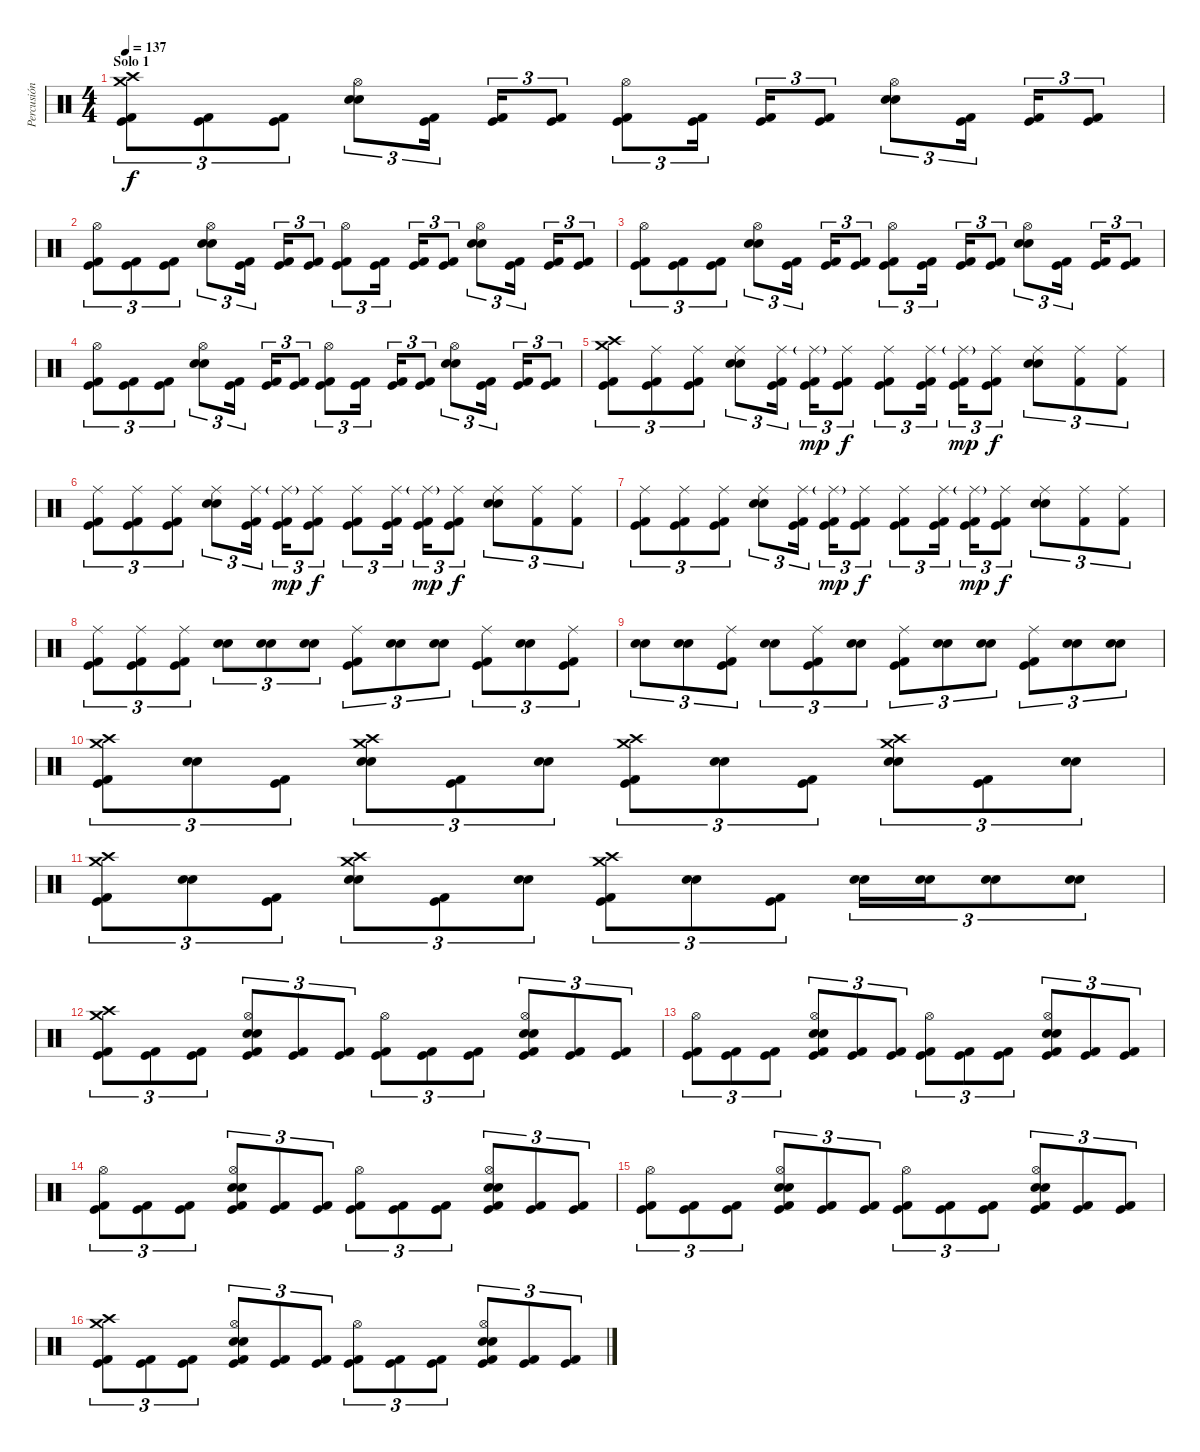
\track ("Percusión" "Percusión") {instrument percussion}
\staff {score}
\articulation defaults
\ts (4 4)
\section ("" "Solo 1")
\tempo 137
\clef neutral
\ks c
("Crash medium (hit)" "Crash high (hit)" "Kick (hit)" "Kick (hit) 2").8{tu (3 2) dy f} ("Kick (hit)" "Kick (hit) 2").8{tu (3 2)} ("Kick (hit)" "Kick (hit) 2").8{tu (3 2)} ("Hi-Hat (open)" "Electric Snare (hit)" "Electric Snare (hit)").8{tu (3 2)} ("Kick (hit)" "Kick (hit) 2").16{tu (3 2)} ("Kick (hit)" "Kick (hit) 2").16{tu (3 2)} ("Kick (hit)" "Kick (hit) 2").8{tu (3 2)} ("Hi-Hat (open)" "Kick (hit)" "Kick (hit) 2").8{tu (3 2)} ("Kick (hit)" "Kick (hit) 2").16{tu (3 2)} ("Kick (hit)" "Kick (hit) 2").16{tu (3 2)} ("Kick (hit)" "Kick (hit) 2").8{tu (3 2)} ("Hi-Hat (open)" "Electric Snare (hit)" "Electric Snare (hit)").8{tu (3 2)} ("Kick (hit)" "Kick (hit) 2").16{tu (3 2)} ("Kick (hit)" "Kick (hit) 2").16{tu (3 2)} ("Kick (hit)" "Kick (hit) 2").8{tu (3 2)} |
("Hi-Hat (open)" "Kick (hit)" "Kick (hit) 2").8{tu (3 2)} ("Kick (hit)" "Kick (hit) 2").8{tu (3 2)} ("Kick (hit)" "Kick (hit) 2").8{tu (3 2)} ("Hi-Hat (open)" "Electric Snare (hit)" "Electric Snare (hit)").8{tu (3 2)} ("Kick (hit)" "Kick (hit) 2").16{tu (3 2)} ("Kick (hit)" "Kick (hit) 2").16{tu (3 2)} ("Kick (hit)" "Kick (hit) 2").8{tu (3 2)} ("Hi-Hat (open)" "Kick (hit)" "Kick (hit) 2").8{tu (3 2)} ("Kick (hit)" "Kick (hit) 2").16{tu (3 2)} ("Kick (hit)" "Kick (hit) 2").16{tu (3 2)} ("Kick (hit)" "Kick (hit) 2").8{tu (3 2)} ("Hi-Hat (open)" "Electric Snare (hit)" "Electric Snare (hit)").8{tu (3 2)} ("Kick (hit)" "Kick (hit) 2").16{tu (3 2)} ("Kick (hit)" "Kick (hit) 2").16{tu (3 2)} ("Kick (hit)" "Kick (hit) 2").8{tu (3 2)} |
("Hi-Hat (open)" "Kick (hit)" "Kick (hit) 2").8{tu (3 2)} ("Kick (hit)" "Kick (hit) 2").8{tu (3 2)} ("Kick (hit)" "Kick (hit) 2").8{tu (3 2)} ("Hi-Hat (open)" "Electric Snare (hit)" "Electric Snare (hit)").8{tu (3 2)} ("Kick (hit)" "Kick (hit) 2").16{tu (3 2)} ("Kick (hit)" "Kick (hit) 2").16{tu (3 2)} ("Kick (hit)" "Kick (hit) 2").8{tu (3 2)} ("Hi-Hat (open)" "Kick (hit)" "Kick (hit) 2").8{tu (3 2)} ("Kick (hit)" "Kick (hit) 2").16{tu (3 2)} ("Kick (hit)" "Kick (hit) 2").16{tu (3 2)} ("Kick (hit)" "Kick (hit) 2").8{tu (3 2)} ("Hi-Hat (open)" "Electric Snare (hit)" "Electric Snare (hit)").8{tu (3 2)} ("Kick (hit)" "Kick (hit) 2").16{tu (3 2)} ("Kick (hit)" "Kick (hit) 2").16{tu (3 2)} ("Kick (hit)" "Kick (hit) 2").8{tu (3 2)} |
("Hi-Hat (open)" "Kick (hit)" "Kick (hit) 2").8{tu (3 2)} ("Kick (hit)" "Kick (hit) 2").8{tu (3 2)} ("Kick (hit)" "Kick (hit) 2").8{tu (3 2)} ("Hi-Hat (open)" "Electric Snare (hit)" "Electric Snare (hit)").8{tu (3 2)} ("Kick (hit)" "Kick (hit) 2").16{tu (3 2)} ("Kick (hit)" "Kick (hit) 2").16{tu (3 2)} ("Kick (hit)" "Kick (hit) 2").8{tu (3 2)} ("Hi-Hat (open)" "Kick (hit)" "Kick (hit) 2").8{tu (3 2)} ("Kick (hit)" "Kick (hit) 2").16{tu (3 2)} ("Kick (hit)" "Kick (hit) 2").16{tu (3 2)} ("Kick (hit)" "Kick (hit) 2").8{tu (3 2)} ("Hi-Hat (open)" "Electric Snare (hit)" "Electric Snare (hit)").8{tu (3 2)} ("Kick (hit)" "Kick (hit) 2").16{tu (3 2)} ("Kick (hit)" "Kick (hit) 2").16{tu (3 2)} ("Kick (hit)" "Kick (hit) 2").8{tu (3 2)} |
("Crash medium (hit)" "Crash high (hit)" "Kick (hit)" "Kick (hit) 2").8{tu (3 2)} ("Ride (middle)" "Kick (hit)" "Kick (hit) 2").8{tu (3 2)} ("Ride (middle)" "Kick (hit)" "Kick (hit) 2").8{tu (3 2)} ("Ride (middle)" "Electric Snare (hit)" "Electric Snare (hit)").8{tu (3 2)} ("Ride (middle)" "Kick (hit)" "Kick (hit) 2").16{tu (3 2)} ("Ride (middle)"{g} "Kick (hit)" "Kick (hit) 2").16{tu (3 2) dy mp} ("Ride (middle)" "Kick (hit)" "Kick (hit) 2").8{tu (3 2) dy f} ("Ride (middle)" "Kick (hit)" "Kick (hit) 2").8{tu (3 2)} ("Ride (middle)" "Kick (hit)" "Kick (hit) 2").16{tu (3 2)} ("Ride (middle)"{g} "Kick (hit)" "Kick (hit) 2").16{tu (3 2) dy mp} ("Ride (middle)" "Kick (hit)" "Kick (hit) 2").8{tu (3 2) dy f} ("Ride (middle)" "Electric Snare (hit)" "Electric Snare (hit)").8{tu (3 2)} ("Ride (middle)" "Kick (hit) 2").8{tu (3 2)} ("Ride (middle)" "Kick (hit) 2").8{tu (3 2)} |
("Ride (middle)" "Kick (hit)" "Kick (hit) 2").8{tu (3 2)} ("Ride (middle)" "Kick (hit)" "Kick (hit) 2").8{tu (3 2)} ("Ride (middle)" "Kick (hit)" "Kick (hit) 2").8{tu (3 2)} ("Ride (middle)" "Electric Snare (hit)" "Electric Snare (hit)").8{tu (3 2)} ("Ride (middle)" "Kick (hit)" "Kick (hit) 2").16{tu (3 2)} ("Ride (middle)"{g} "Kick (hit)" "Kick (hit) 2").16{tu (3 2) dy mp} ("Ride (middle)" "Kick (hit)" "Kick (hit) 2").8{tu (3 2) dy f} ("Ride (middle)" "Kick (hit)" "Kick (hit) 2").8{tu (3 2)} ("Ride (middle)" "Kick (hit)" "Kick (hit) 2").16{tu (3 2)} ("Ride (middle)"{g} "Kick (hit)" "Kick (hit) 2").16{tu (3 2) dy mp} ("Ride (middle)" "Kick (hit)" "Kick (hit) 2").8{tu (3 2) dy f} ("Ride (middle)" "Electric Snare (hit)" "Electric Snare (hit)").8{tu (3 2)} ("Ride (middle)" "Kick (hit) 2").8{tu (3 2)} ("Ride (middle)" "Kick (hit) 2").8{tu (3 2)} |
("Ride (middle)" "Kick (hit)" "Kick (hit) 2").8{tu (3 2)} ("Ride (middle)" "Kick (hit)" "Kick (hit) 2").8{tu (3 2)} ("Ride (middle)" "Kick (hit)" "Kick (hit) 2").8{tu (3 2)} ("Ride (middle)" "Electric Snare (hit)" "Electric Snare (hit)").8{tu (3 2)} ("Ride (middle)" "Kick (hit)" "Kick (hit) 2").16{tu (3 2)} ("Ride (middle)"{g} "Kick (hit)" "Kick (hit) 2").16{tu (3 2) dy mp} ("Ride (middle)" "Kick (hit)" "Kick (hit) 2").8{tu (3 2) dy f} ("Ride (middle)" "Kick (hit)" "Kick (hit) 2").8{tu (3 2)} ("Ride (middle)" "Kick (hit)" "Kick (hit) 2").16{tu (3 2)} ("Ride (middle)"{g} "Kick (hit)" "Kick (hit) 2").16{tu (3 2) dy mp} ("Ride (middle)" "Kick (hit)" "Kick (hit) 2").8{tu (3 2) dy f} ("Ride (middle)" "Electric Snare (hit)" "Electric Snare (hit)").8{tu (3 2)} ("Ride (middle)" "Kick (hit) 2").8{tu (3 2)} ("Ride (middle)" "Kick (hit) 2").8{tu (3 2)} |
("Ride (middle)" "Kick (hit)" "Kick (hit) 2").8{tu (3 2)} ("Ride (middle)" "Kick (hit)" "Kick (hit) 2").8{tu (3 2)} ("Ride (middle)" "Kick (hit)" "Kick (hit) 2").8{tu (3 2)} ("Electric Snare (hit)" "Electric Snare (hit)").8{tu (3 2)} ("Electric Snare (hit)" "Electric Snare (hit)").8{tu (3 2)} ("Electric Snare (hit)" "Electric Snare (hit)").8{tu (3 2)} ("Ride (middle)" "Kick (hit)" "Kick (hit) 2").8{tu (3 2)} ("Electric Snare (hit)" "Electric Snare (hit)").8{tu (3 2)} ("Electric Snare (hit)" "Electric Snare (hit)").8{tu (3 2)} ("Ride (middle)" "Kick (hit)" "Kick (hit) 2").8{tu (3 2)} ("Electric Snare (hit)" "Electric Snare (hit)").8{tu (3 2)} ("Ride (middle)" "Kick (hit)" "Kick (hit) 2").8{tu (3 2)} |
("Electric Snare (hit)" "Electric Snare (hit)").8{tu (3 2)} ("Electric Snare (hit)" "Electric Snare (hit)").8{tu (3 2)} ("Ride (middle)" "Kick (hit)" "Kick (hit) 2").8{tu (3 2)} ("Electric Snare (hit)" "Electric Snare (hit)").8{tu (3 2)} ("Ride (middle)" "Kick (hit)" "Kick (hit) 2").8{tu (3 2)} ("Electric Snare (hit)" "Electric Snare (hit)").8{tu (3 2)} ("Ride (middle)" "Kick (hit)" "Kick (hit) 2").8{tu (3 2)} ("Electric Snare (hit)" "Electric Snare (hit)").8{tu (3 2)} ("Electric Snare (hit)" "Electric Snare (hit)").8{tu (3 2)} ("Ride (middle)" "Kick (hit)" "Kick (hit) 2").8{tu (3 2)} ("Electric Snare (hit)" "Electric Snare (hit)").8{tu (3 2)} ("Electric Snare (hit)" "Electric Snare (hit)").8{tu (3 2)} |
("Crash medium (hit)" "Crash high (hit)" "Kick (hit)" "Kick (hit) 2").8{tu (3 2)} ("Electric Snare (hit)" "Electric Snare (hit)").8{tu (3 2)} ("Kick (hit)" "Kick (hit) 2").8{tu (3 2)} ("Crash medium (hit)" "Crash high (hit)" "Electric Snare (hit)" "Electric Snare (hit)").8{tu (3 2)} ("Kick (hit)" "Kick (hit) 2").8{tu (3 2)} ("Electric Snare (hit)" "Electric Snare (hit)").8{tu (3 2)} ("Crash medium (hit)" "Crash high (hit)" "Kick (hit)" "Kick (hit) 2").8{tu (3 2)} ("Electric Snare (hit)" "Electric Snare (hit)").8{tu (3 2)} ("Kick (hit)" "Kick (hit) 2").8{tu (3 2)} ("Crash medium (hit)" "Crash high (hit)" "Electric Snare (hit)" "Electric Snare (hit)").8{tu (3 2)} ("Kick (hit)" "Kick (hit) 2").8{tu (3 2)} ("Electric Snare (hit)" "Electric Snare (hit)").8{tu (3 2)} |
("Crash medium (hit)" "Crash high (hit)" "Kick (hit)" "Kick (hit) 2").8{tu (3 2)} ("Electric Snare (hit)" "Electric Snare (hit)").8{tu (3 2)} ("Kick (hit)" "Kick (hit) 2").8{tu (3 2)} ("Crash medium (hit)" "Crash high (hit)" "Electric Snare (hit)" "Electric Snare (hit)").8{tu (3 2)} ("Kick (hit)" "Kick (hit) 2").8{tu (3 2)} ("Electric Snare (hit)" "Electric Snare (hit)").8{tu (3 2)} ("Crash medium (hit)" "Crash high (hit)" "Kick (hit)" "Kick (hit) 2").8{tu (3 2)} ("Electric Snare (hit)" "Electric Snare (hit)").8{tu (3 2)} ("Kick (hit)" "Kick (hit) 2").8{tu (3 2)} ("Electric Snare (hit)" "Electric Snare (hit)").16{tu (3 2)} ("Electric Snare (hit)" "Electric Snare (hit)").16{tu (3 2)} ("Electric Snare (hit)" "Electric Snare (hit)").8{tu (3 2)} ("Electric Snare (hit)" "Electric Snare (hit)").8{tu (3 2)} |
("Crash medium (hit)" "Crash high (hit)" "Kick (hit)" "Kick (hit) 2").8{tu (3 2)} ("Kick (hit)" "Kick (hit) 2").8{tu (3 2)} ("Kick (hit)" "Kick (hit) 2").8{tu (3 2)} ("Hi-Hat (open)" "Electric Snare (hit)" "Electric Snare (hit)" "Kick (hit)" "Kick (hit) 2").8{tu (3 2)} ("Kick (hit)" "Kick (hit) 2").8{tu (3 2)} ("Kick (hit)" "Kick (hit) 2").8{tu (3 2)} ("Hi-Hat (open)" "Kick (hit)" "Kick (hit) 2").8{tu (3 2)} ("Kick (hit)" "Kick (hit) 2").8{tu (3 2)} ("Kick (hit)" "Kick (hit) 2").8{tu (3 2)} ("Hi-Hat (open)" "Electric Snare (hit)" "Electric Snare (hit)" "Kick (hit)" "Kick (hit) 2").8{tu (3 2)} ("Kick (hit)" "Kick (hit) 2").8{tu (3 2)} ("Kick (hit)" "Kick (hit) 2").8{tu (3 2)} |
("Hi-Hat (open)" "Kick (hit)" "Kick (hit) 2").8{tu (3 2)} ("Kick (hit)" "Kick (hit) 2").8{tu (3 2)} ("Kick (hit)" "Kick (hit) 2").8{tu (3 2)} ("Hi-Hat (open)" "Electric Snare (hit)" "Electric Snare (hit)" "Kick (hit)" "Kick (hit) 2").8{tu (3 2)} ("Kick (hit)" "Kick (hit) 2").8{tu (3 2)} ("Kick (hit)" "Kick (hit) 2").8{tu (3 2)} ("Hi-Hat (open)" "Kick (hit)" "Kick (hit) 2").8{tu (3 2)} ("Kick (hit)" "Kick (hit) 2").8{tu (3 2)} ("Kick (hit)" "Kick (hit) 2").8{tu (3 2)} ("Hi-Hat (open)" "Electric Snare (hit)" "Electric Snare (hit)" "Kick (hit)" "Kick (hit) 2").8{tu (3 2)} ("Kick (hit)" "Kick (hit) 2").8{tu (3 2)} ("Kick (hit)" "Kick (hit) 2").8{tu (3 2)} |
("Hi-Hat (open)" "Kick (hit)" "Kick (hit) 2").8{tu (3 2)} ("Kick (hit)" "Kick (hit) 2").8{tu (3 2)} ("Kick (hit)" "Kick (hit) 2").8{tu (3 2)} ("Hi-Hat (open)" "Electric Snare (hit)" "Electric Snare (hit)" "Kick (hit)" "Kick (hit) 2").8{tu (3 2)} ("Kick (hit)" "Kick (hit) 2").8{tu (3 2)} ("Kick (hit)" "Kick (hit) 2").8{tu (3 2)} ("Hi-Hat (open)" "Kick (hit)" "Kick (hit) 2").8{tu (3 2)} ("Kick (hit)" "Kick (hit) 2").8{tu (3 2)} ("Kick (hit)" "Kick (hit) 2").8{tu (3 2)} ("Hi-Hat (open)" "Electric Snare (hit)" "Electric Snare (hit)" "Kick (hit)" "Kick (hit) 2").8{tu (3 2)} ("Kick (hit)" "Kick (hit) 2").8{tu (3 2)} ("Kick (hit)" "Kick (hit) 2").8{tu (3 2)} |
("Hi-Hat (open)" "Kick (hit)" "Kick (hit) 2").8{tu (3 2)} ("Kick (hit)" "Kick (hit) 2").8{tu (3 2)} ("Kick (hit)" "Kick (hit) 2").8{tu (3 2)} ("Hi-Hat (open)" "Electric Snare (hit)" "Electric Snare (hit)" "Kick (hit)" "Kick (hit) 2").8{tu (3 2)} ("Kick (hit)" "Kick (hit) 2").8{tu (3 2)} ("Kick (hit)" "Kick (hit) 2").8{tu (3 2)} ("Hi-Hat (open)" "Kick (hit)" "Kick (hit) 2").8{tu (3 2)} ("Kick (hit)" "Kick (hit) 2").8{tu (3 2)} ("Kick (hit)" "Kick (hit) 2").8{tu (3 2)} ("Hi-Hat (open)" "Electric Snare (hit)" "Electric Snare (hit)" "Kick (hit)" "Kick (hit) 2").8{tu (3 2)} ("Kick (hit)" "Kick (hit) 2").8{tu (3 2)} ("Kick (hit)" "Kick (hit) 2").8{tu (3 2)} |
("Crash medium (hit)" "Crash high (hit)" "Kick (hit)" "Kick (hit) 2").8{tu (3 2)} ("Kick (hit)" "Kick (hit) 2").8{tu (3 2)} ("Kick (hit)" "Kick (hit) 2").8{tu (3 2)} ("Hi-Hat (open)" "Electric Snare (hit)" "Electric Snare (hit)" "Kick (hit)" "Kick (hit) 2").8{tu (3 2)} ("Kick (hit)" "Kick (hit) 2").8{tu (3 2)} ("Kick (hit)" "Kick (hit) 2").8{tu (3 2)} ("Hi-Hat (open)" "Kick (hit)" "Kick (hit) 2").8{tu (3 2)} ("Kick (hit)" "Kick (hit) 2").8{tu (3 2)} ("Kick (hit)" "Kick (hit) 2").8{tu (3 2)} ("Hi-Hat (open)" "Electric Snare (hit)" "Electric Snare (hit)" "Kick (hit)" "Kick (hit) 2").8{tu (3 2)} ("Kick (hit)" "Kick (hit) 2").8{tu (3 2)} ("Kick (hit)" "Kick (hit) 2").8{tu (3 2)}
